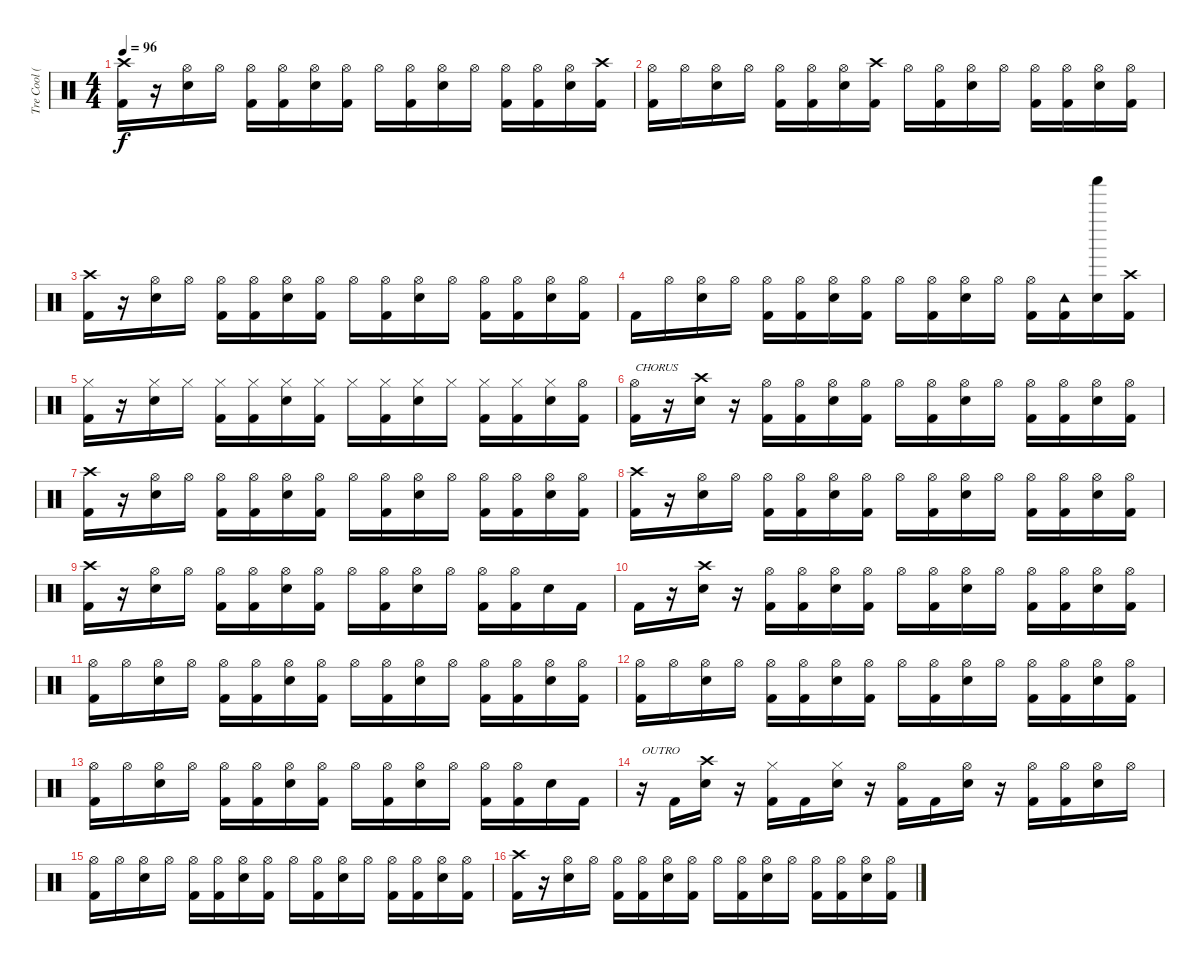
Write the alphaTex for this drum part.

\track ("Tre Cool (Drums)" "Tre Cool (") {instrument percussion}
\staff {score}
\articulation defaults
\ts (4 4)
\tempo 96
\clef neutral
\ks c
("Crash high (hit)" "Kick (hit) 2").16{dy f} r.16 ("Hi-Hat (open)" "Electric Snare (hit)").16 "Hi-Hat (open)".16 ("Hi-Hat (open)" "Kick (hit) 2").16 ("Hi-Hat (open)" "Kick (hit) 2").16 ("Hi-Hat (open)" "Electric Snare (hit)").16 ("Hi-Hat (open)" "Kick (hit) 2").16 "Hi-Hat (open)".16 ("Hi-Hat (open)" "Kick (hit) 2").16 ("Hi-Hat (open)" "Electric Snare (hit)").16 "Hi-Hat (open)".16 ("Hi-Hat (open)" "Kick (hit) 2").16 ("Hi-Hat (open)" "Kick (hit) 2").16 ("Hi-Hat (open)" "Electric Snare (hit)").16 ("Crash high (hit)" "Kick (hit) 2").16 |
("Hi-Hat (open)" "Kick (hit) 2").16 "Hi-Hat (open)".16 ("Hi-Hat (open)" "Electric Snare (hit)").16 "Hi-Hat (open)".16 ("Hi-Hat (open)" "Kick (hit) 2").16 ("Hi-Hat (open)" "Kick (hit) 2").16 ("Hi-Hat (open)" "Electric Snare (hit)").16 ("Crash high (hit)" "Kick (hit) 2").16 "Hi-Hat (open)".16 ("Hi-Hat (open)" "Kick (hit) 2").16 ("Hi-Hat (open)" "Electric Snare (hit)").16 "Hi-Hat (open)".16 ("Hi-Hat (open)" "Kick (hit) 2").16 ("Hi-Hat (open)" "Kick (hit) 2").16 ("Hi-Hat (open)" "Electric Snare (hit)").16 ("Hi-Hat (open)" "Kick (hit) 2").16 |
("Crash high (hit)" "Kick (hit) 2").16 r.16 ("Hi-Hat (open)" "Electric Snare (hit)").16 "Hi-Hat (open)".16 ("Hi-Hat (open)" "Kick (hit) 2").16 ("Hi-Hat (open)" "Kick (hit) 2").16 ("Hi-Hat (open)" "Electric Snare (hit)").16 ("Hi-Hat (open)" "Kick (hit) 2").16 "Hi-Hat (open)".16 ("Hi-Hat (open)" "Kick (hit) 2").16 ("Hi-Hat (open)" "Electric Snare (hit)").16 "Hi-Hat (open)".16 ("Hi-Hat (open)" "Kick (hit) 2").16 ("Hi-Hat (open)" "Kick (hit) 2").16 ("Hi-Hat (open)" "Electric Snare (hit)").16 ("Hi-Hat (open)" "Kick (hit) 2").16 |
"Kick (hit) 2".16 "Hi-Hat (open)".16 ("Hi-Hat (open)" "Electric Snare (hit)").16 "Hi-Hat (open)".16 ("Hi-Hat (open)" "Kick (hit) 2").16 ("Hi-Hat (open)" "Kick (hit) 2").16 ("Hi-Hat (open)" "Electric Snare (hit)").16 ("Hi-Hat (open)" "Kick (hit) 2").16 "Hi-Hat (open)".16 ("Hi-Hat (open)" "Kick (hit) 2").16 ("Hi-Hat (open)" "Electric Snare (hit)").16 "Hi-Hat (open)".16 ("Hi-Hat (open)" "Kick (hit) 2").16 ("Tambourine (hit)" "Kick (hit) 2").16 ("Shaker (hit)" "Electric Snare (hit)").16 ("Crash high (hit)" "Kick (hit) 2").16 |
("Hi-Hat (closed)" "Kick (hit) 2").16 r.16 ("Hi-Hat (closed)" "Electric Snare (hit)").16 "Hi-Hat (closed)".16 ("Hi-Hat (closed)" "Kick (hit) 2").16 ("Hi-Hat (closed)" "Kick (hit) 2").16 ("Hi-Hat (closed)" "Electric Snare (hit)").16 ("Hi-Hat (closed)" "Kick (hit) 2").16 "Hi-Hat (closed)".16 ("Hi-Hat (closed)" "Kick (hit) 2").16 ("Hi-Hat (closed)" "Electric Snare (hit)").16 "Hi-Hat (closed)".16 ("Hi-Hat (closed)" "Kick (hit) 2").16 ("Hi-Hat (closed)" "Kick (hit) 2").16 ("Hi-Hat (closed)" "Electric Snare (hit)").16 ("Hi-Hat (open)" "Kick (hit) 2").16 |
("Hi-Hat (open)" "Kick (hit) 2").16{txt "CHORUS"} r.16 ("Crash high (hit)" "Electric Snare (hit)").16 r.16 ("Hi-Hat (open)" "Kick (hit) 2").16 ("Hi-Hat (open)" "Kick (hit) 2").16 ("Hi-Hat (open)" "Electric Snare (hit)").16 ("Hi-Hat (open)" "Kick (hit) 2").16 "Hi-Hat (open)".16 ("Hi-Hat (open)" "Kick (hit) 2").16 ("Hi-Hat (open)" "Electric Snare (hit)").16 "Hi-Hat (open)".16 ("Hi-Hat (open)" "Kick (hit) 2").16 ("Hi-Hat (open)" "Kick (hit) 2").16 ("Hi-Hat (open)" "Electric Snare (hit)").16 ("Hi-Hat (open)" "Kick (hit) 2").16 |
("Crash high (hit)" "Kick (hit) 2").16 r.16 ("Hi-Hat (open)" "Electric Snare (hit)").16 "Hi-Hat (open)".16 ("Hi-Hat (open)" "Kick (hit) 2").16 ("Hi-Hat (open)" "Kick (hit) 2").16 ("Hi-Hat (open)" "Electric Snare (hit)").16 ("Hi-Hat (open)" "Kick (hit) 2").16 "Hi-Hat (open)".16 ("Hi-Hat (open)" "Kick (hit) 2").16 ("Hi-Hat (open)" "Electric Snare (hit)").16 "Hi-Hat (open)".16 ("Hi-Hat (open)" "Kick (hit) 2").16 ("Hi-Hat (open)" "Kick (hit) 2").16 ("Hi-Hat (open)" "Electric Snare (hit)").16 ("Hi-Hat (open)" "Kick (hit) 2").16 |
("Crash high (hit)" "Kick (hit) 2").16 r.16 ("Hi-Hat (open)" "Electric Snare (hit)").16 "Hi-Hat (open)".16 ("Hi-Hat (open)" "Kick (hit) 2").16 ("Hi-Hat (open)" "Kick (hit) 2").16 ("Hi-Hat (open)" "Electric Snare (hit)").16 ("Hi-Hat (open)" "Kick (hit) 2").16 "Hi-Hat (open)".16 ("Hi-Hat (open)" "Kick (hit) 2").16 ("Hi-Hat (open)" "Electric Snare (hit)").16 "Hi-Hat (open)".16 ("Hi-Hat (open)" "Kick (hit) 2").16 ("Hi-Hat (open)" "Kick (hit) 2").16 ("Hi-Hat (open)" "Electric Snare (hit)").16 ("Hi-Hat (open)" "Kick (hit) 2").16 |
("Crash high (hit)" "Kick (hit) 2").16 r.16 ("Hi-Hat (open)" "Electric Snare (hit)").16 "Hi-Hat (open)".16 ("Hi-Hat (open)" "Kick (hit) 2").16 ("Hi-Hat (open)" "Kick (hit) 2").16 ("Hi-Hat (open)" "Electric Snare (hit)").16 ("Hi-Hat (open)" "Kick (hit) 2").16 "Hi-Hat (open)".16 ("Hi-Hat (open)" "Kick (hit) 2").16 ("Hi-Hat (open)" "Electric Snare (hit)").16 "Hi-Hat (open)".16 ("Hi-Hat (open)" "Kick (hit) 2").16 ("Hi-Hat (open)" "Kick (hit) 2").16 "Electric Snare (hit)".16 "Kick (hit) 2".16 |
"Kick (hit) 2".16 r.16 ("Crash high (hit)" "Electric Snare (hit)").16 r.16 ("Hi-Hat (open)" "Kick (hit) 2").16 ("Hi-Hat (open)" "Kick (hit) 2").16 ("Hi-Hat (open)" "Electric Snare (hit)").16 ("Hi-Hat (open)" "Kick (hit) 2").16 "Hi-Hat (open)".16 ("Hi-Hat (open)" "Kick (hit) 2").16 ("Hi-Hat (open)" "Electric Snare (hit)").16 "Hi-Hat (open)".16 ("Hi-Hat (open)" "Kick (hit) 2").16 ("Hi-Hat (open)" "Kick (hit) 2").16 ("Hi-Hat (open)" "Electric Snare (hit)").16 ("Hi-Hat (open)" "Kick (hit) 2").16 |
("Hi-Hat (open)" "Kick (hit) 2").16 "Hi-Hat (open)".16 ("Hi-Hat (open)" "Electric Snare (hit)").16 "Hi-Hat (open)".16 ("Hi-Hat (open)" "Kick (hit) 2").16 ("Hi-Hat (open)" "Kick (hit) 2").16 ("Hi-Hat (open)" "Electric Snare (hit)").16 ("Hi-Hat (open)" "Kick (hit) 2").16 "Hi-Hat (open)".16 ("Hi-Hat (open)" "Kick (hit) 2").16 ("Hi-Hat (open)" "Electric Snare (hit)").16 "Hi-Hat (open)".16 ("Hi-Hat (open)" "Kick (hit) 2").16 ("Hi-Hat (open)" "Kick (hit) 2").16 ("Hi-Hat (open)" "Electric Snare (hit)").16 ("Hi-Hat (open)" "Kick (hit) 2").16 |
("Hi-Hat (open)" "Kick (hit) 2").16 "Hi-Hat (open)".16 ("Hi-Hat (open)" "Electric Snare (hit)").16 "Hi-Hat (open)".16 ("Hi-Hat (open)" "Kick (hit) 2").16 ("Hi-Hat (open)" "Kick (hit) 2").16 ("Hi-Hat (open)" "Electric Snare (hit)").16 ("Hi-Hat (open)" "Kick (hit) 2").16 "Hi-Hat (open)".16 ("Hi-Hat (open)" "Kick (hit) 2").16 ("Hi-Hat (open)" "Electric Snare (hit)").16 "Hi-Hat (open)".16 ("Hi-Hat (open)" "Kick (hit) 2").16 ("Hi-Hat (open)" "Kick (hit) 2").16 ("Hi-Hat (open)" "Electric Snare (hit)").16 ("Hi-Hat (open)" "Kick (hit) 2").16 |
("Hi-Hat (open)" "Kick (hit) 2").16 "Hi-Hat (open)".16 ("Hi-Hat (open)" "Electric Snare (hit)").16 "Hi-Hat (open)".16 ("Hi-Hat (open)" "Kick (hit) 2").16 ("Hi-Hat (open)" "Kick (hit) 2").16 ("Hi-Hat (open)" "Electric Snare (hit)").16 ("Hi-Hat (open)" "Kick (hit) 2").16 "Hi-Hat (open)".16 ("Hi-Hat (open)" "Kick (hit) 2").16 ("Hi-Hat (open)" "Electric Snare (hit)").16 "Hi-Hat (open)".16 ("Hi-Hat (open)" "Kick (hit) 2").16 ("Hi-Hat (open)" "Kick (hit) 2").16 "Electric Snare (hit)".16 "Kick (hit) 2".16 |
r.16{txt "OUTRO"} "Kick (hit) 2".16 ("Crash high (hit)" "Electric Snare (hit)").16 r.16 ("Hi-Hat (closed)" "Kick (hit) 2").16 "Kick (hit) 2".16 ("Hi-Hat (closed)" "Electric Snare (hit)").16 r.16 ("Hi-Hat (open)" "Kick (hit) 2").16 "Kick (hit) 2".16 ("Hi-Hat (open)" "Electric Snare (hit)").16 r.16 ("Hi-Hat (open)" "Kick (hit) 2").16 ("Hi-Hat (open)" "Kick (hit) 2").16 ("Hi-Hat (open)" "Electric Snare (hit)").16 "Hi-Hat (open)".16 |
("Hi-Hat (open)" "Kick (hit) 2").16 "Hi-Hat (open)".16 ("Hi-Hat (open)" "Electric Snare (hit)").16 "Hi-Hat (open)".16 ("Hi-Hat (open)" "Kick (hit) 2").16 ("Hi-Hat (open)" "Kick (hit) 2").16 ("Hi-Hat (open)" "Electric Snare (hit)").16 ("Hi-Hat (open)" "Kick (hit) 2").16 "Hi-Hat (open)".16 ("Hi-Hat (open)" "Kick (hit) 2").16 ("Hi-Hat (open)" "Electric Snare (hit)").16 "Hi-Hat (open)".16 ("Hi-Hat (open)" "Kick (hit) 2").16 ("Hi-Hat (open)" "Kick (hit) 2").16 ("Hi-Hat (open)" "Electric Snare (hit)").16 ("Hi-Hat (open)" "Kick (hit) 2").16 |
("Crash high (hit)" "Kick (hit) 2").16 r.16 ("Hi-Hat (open)" "Electric Snare (hit)").16 "Hi-Hat (open)".16 ("Hi-Hat (open)" "Kick (hit) 2").16 ("Hi-Hat (open)" "Kick (hit) 2").16 ("Hi-Hat (open)" "Electric Snare (hit)").16 ("Hi-Hat (open)" "Kick (hit) 2").16 "Hi-Hat (open)".16 ("Hi-Hat (open)" "Kick (hit) 2").16 ("Hi-Hat (open)" "Electric Snare (hit)").16 "Hi-Hat (open)".16 ("Hi-Hat (open)" "Kick (hit) 2").16 ("Hi-Hat (open)" "Kick (hit) 2").16 ("Hi-Hat (open)" "Electric Snare (hit)").16 ("Hi-Hat (open)" "Kick (hit) 2").16
